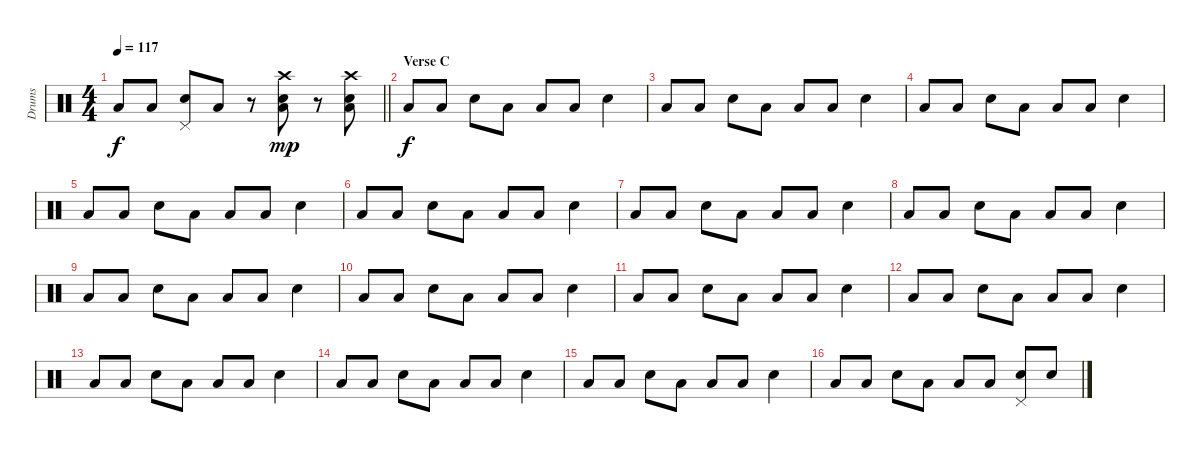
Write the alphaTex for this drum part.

\track ("Drums" "Drums") {instrument percussion}
\staff {score}
\articulation defaults
\ts (4 4)
\tempo 117
\clef neutral
\barLineRight lightlight
\ks c "Low Tom (hit)".8{dy f} "Low Tom (hit)".8
("Snare (hit) 2" "Pedal Hi-Hat (hit)").8 "Low Tom (hit)".8 r.8 ("Low Tom (hit)" "Crash high (hit)" "Snare (hit) 2").8{dy mp} r.8 ("Low Tom (hit)" "Crash high (hit)" "Snare (hit) 2").8 |
\section ("" "Verse C")
"Low Tom (hit)".8{dy f} "Low Tom (hit)".8 "Snare (hit) 2".8 "Low Tom (hit)".8 "Low Tom (hit)".8 "Low Tom (hit)".8 "Snare (hit) 2".4 |
"Low Tom (hit)".8 "Low Tom (hit)".8 "Snare (hit) 2".8 "Low Tom (hit)".8 "Low Tom (hit)".8 "Low Tom (hit)".8 "Snare (hit) 2".4 |
"Low Tom (hit)".8 "Low Tom (hit)".8 "Snare (hit) 2".8 "Low Tom (hit)".8 "Low Tom (hit)".8 "Low Tom (hit)".8 "Snare (hit) 2".4 |
"Low Tom (hit)".8 "Low Tom (hit)".8 "Snare (hit) 2".8 "Low Tom (hit)".8 "Low Tom (hit)".8 "Low Tom (hit)".8 "Snare (hit) 2".4 |
"Low Tom (hit)".8 "Low Tom (hit)".8 "Snare (hit) 2".8 "Low Tom (hit)".8 "Low Tom (hit)".8 "Low Tom (hit)".8 "Snare (hit) 2".4 |
"Low Tom (hit)".8 "Low Tom (hit)".8 "Snare (hit) 2".8 "Low Tom (hit)".8 "Low Tom (hit)".8 "Low Tom (hit)".8 "Snare (hit) 2".4 |
"Low Tom (hit)".8 "Low Tom (hit)".8 "Snare (hit) 2".8 "Low Tom (hit)".8 "Low Tom (hit)".8 "Low Tom (hit)".8 "Snare (hit) 2".4 |
"Low Tom (hit)".8 "Low Tom (hit)".8 "Snare (hit) 2".8 "Low Tom (hit)".8 "Low Tom (hit)".8 "Low Tom (hit)".8 "Snare (hit) 2".4 |
"Low Tom (hit)".8 "Low Tom (hit)".8 "Snare (hit) 2".8 "Low Tom (hit)".8 "Low Tom (hit)".8 "Low Tom (hit)".8 "Snare (hit) 2".4 |
"Low Tom (hit)".8 "Low Tom (hit)".8 "Snare (hit) 2".8 "Low Tom (hit)".8 "Low Tom (hit)".8 "Low Tom (hit)".8 "Snare (hit) 2".4 |
"Low Tom (hit)".8 "Low Tom (hit)".8 "Snare (hit) 2".8 "Low Tom (hit)".8 "Low Tom (hit)".8 "Low Tom (hit)".8 "Snare (hit) 2".4 |
"Low Tom (hit)".8 "Low Tom (hit)".8 "Snare (hit) 2".8 "Low Tom (hit)".8 "Low Tom (hit)".8 "Low Tom (hit)".8 "Snare (hit) 2".4 |
"Low Tom (hit)".8 "Low Tom (hit)".8 "Snare (hit) 2".8 "Low Tom (hit)".8 "Low Tom (hit)".8 "Low Tom (hit)".8 "Snare (hit) 2".4 |
"Low Tom (hit)".8 "Low Tom (hit)".8 "Snare (hit) 2".8 "Low Tom (hit)".8 "Low Tom (hit)".8 "Low Tom (hit)".8 "Snare (hit) 2".4 |
"Low Tom (hit)".8 "Low Tom (hit)".8 "Snare (hit) 2".8 "Low Tom (hit)".8 "Low Tom (hit)".8 "Low Tom (hit)".8 ("Snare (hit) 2" "Pedal Hi-Hat (hit)").8 "Snare (hit) 2".8
